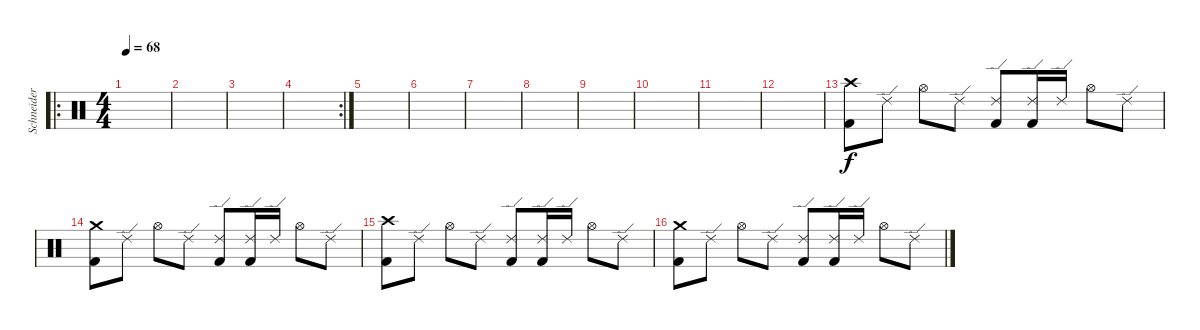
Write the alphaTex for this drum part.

\track ("Schneider" "Schneider") {instrument percussion}
\staff {score}
\articulation defaults
\ro
\ts (4 4)
\tempo 68
\clef neutral
\ks c
|
|
|
\rc 2
|
|
|
|
|
|
|
|
|
("Crash high (hit)" "Kick (hit) 2").8 "Ride (edge) 2".8 "Hi-Hat (open)".8 "Ride (edge) 2".8 ("Ride (edge) 2" "Kick (hit) 2").8 ("Ride (edge) 2" "Kick (hit) 2").16 "Ride (edge) 2".16 "Hi-Hat (open)".8 "Ride (edge) 2".8 |
("Crash medium (hit)" "Kick (hit) 2").8 "Ride (edge) 2".8 "Hi-Hat (open)".8 "Ride (edge) 2".8 ("Ride (edge) 2" "Kick (hit) 2").8 ("Ride (edge) 2" "Kick (hit) 2").16 "Ride (edge) 2".16 "Hi-Hat (open)".8 "Ride (edge) 2".8 |
("Crash high (hit)" "Kick (hit) 2").8 "Ride (edge) 2".8 "Hi-Hat (open)".8 "Ride (edge) 2".8 ("Ride (edge) 2" "Kick (hit) 2").8 ("Ride (edge) 2" "Kick (hit) 2").16 "Ride (edge) 2".16 "Hi-Hat (open)".8 "Ride (edge) 2".8 |
("Crash medium (hit)" "Kick (hit) 2").8 "Ride (edge) 2".8 "Hi-Hat (open)".8 "Ride (edge) 2".8 ("Ride (edge) 2" "Kick (hit) 2").8 ("Ride (edge) 2" "Kick (hit) 2").16 "Ride (edge) 2".16 "Hi-Hat (open)".8 "Ride (edge) 2".8
